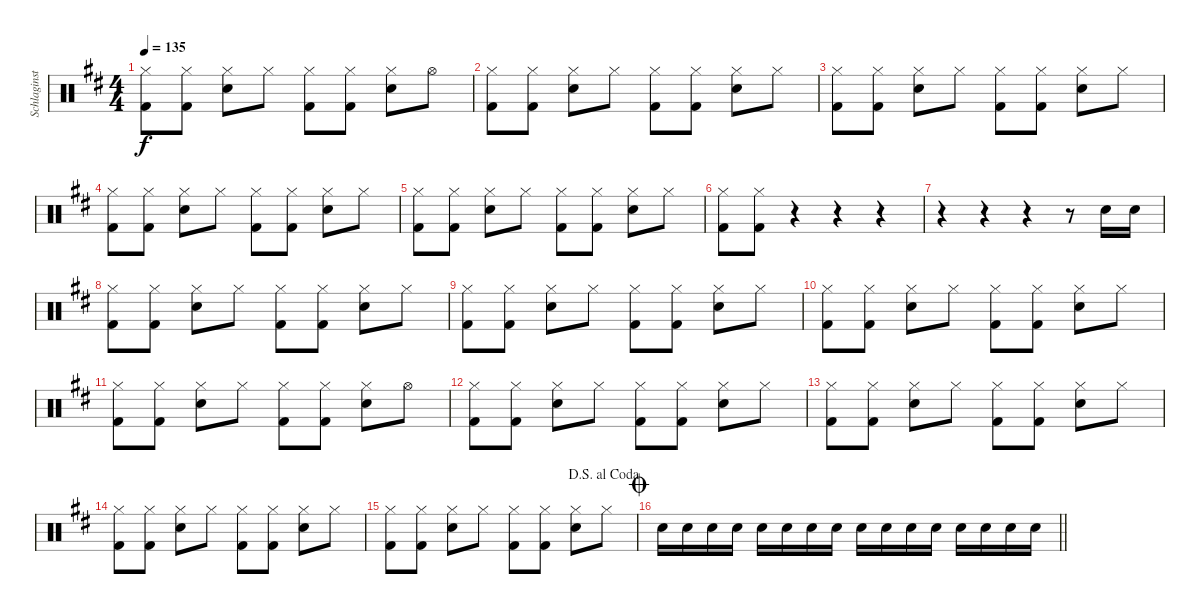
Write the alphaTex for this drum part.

\track ("Schlaginstrumente - Auswahl" "Schlaginst") {instrument percussion}
\staff {score}
\articulation defaults
\ts (4 4)
\tempo 135
\clef neutral
\ks d
("Hi-Hat (closed)" "Kick (hit) 2").8{dy f} ("Hi-Hat (closed)" "Kick (hit) 2").8 ("Hi-Hat (closed)" "Snare (hit) 2").8 "Hi-Hat (closed)".8 ("Hi-Hat (closed)" "Kick (hit) 2").8 ("Hi-Hat (closed)" "Kick (hit) 2").8 ("Hi-Hat (closed)" "Snare (hit) 2").8 "Hi-Hat (open)".8 |
("Hi-Hat (closed)" "Kick (hit) 2").8 ("Hi-Hat (closed)" "Kick (hit) 2").8 ("Hi-Hat (closed)" "Snare (hit) 2").8 "Hi-Hat (closed)".8 ("Hi-Hat (closed)" "Kick (hit) 2").8 ("Hi-Hat (closed)" "Kick (hit) 2").8 ("Hi-Hat (closed)" "Snare (hit) 2").8 "Hi-Hat (closed)".8 |
("Hi-Hat (closed)" "Kick (hit) 2").8 ("Hi-Hat (closed)" "Kick (hit) 2").8 ("Hi-Hat (closed)" "Snare (hit) 2").8 "Hi-Hat (closed)".8 ("Hi-Hat (closed)" "Kick (hit) 2").8 ("Hi-Hat (closed)" "Kick (hit) 2").8 ("Hi-Hat (closed)" "Snare (hit) 2").8 "Hi-Hat (closed)".8 |
("Hi-Hat (closed)" "Kick (hit) 2").8 ("Hi-Hat (closed)" "Kick (hit) 2").8 ("Hi-Hat (closed)" "Snare (hit) 2").8 "Hi-Hat (closed)".8 ("Hi-Hat (closed)" "Kick (hit) 2").8 ("Hi-Hat (closed)" "Kick (hit) 2").8 ("Hi-Hat (closed)" "Snare (hit) 2").8 "Hi-Hat (closed)".8 |
("Hi-Hat (closed)" "Kick (hit) 2").8 ("Hi-Hat (closed)" "Kick (hit) 2").8 ("Hi-Hat (closed)" "Snare (hit) 2").8 "Hi-Hat (closed)".8 ("Hi-Hat (closed)" "Kick (hit) 2").8 ("Hi-Hat (closed)" "Kick (hit) 2").8 ("Hi-Hat (closed)" "Snare (hit) 2").8 "Hi-Hat (closed)".8 |
("Hi-Hat (closed)" "Kick (hit) 2").8 ("Hi-Hat (closed)" "Kick (hit) 2").8 r.4 r.4 r.4 |
r.4 r.4 r.4 r.8 "Snare (hit) 2".16 "Snare (hit) 2".16 |
("Hi-Hat (closed)" "Kick (hit) 2").8 ("Hi-Hat (closed)" "Kick (hit) 2").8 ("Hi-Hat (closed)" "Snare (hit) 2").8 "Hi-Hat (closed)".8 ("Hi-Hat (closed)" "Kick (hit) 2").8 ("Hi-Hat (closed)" "Kick (hit) 2").8 ("Hi-Hat (closed)" "Snare (hit) 2").8 "Hi-Hat (closed)".8 |
("Hi-Hat (closed)" "Kick (hit) 2").8 ("Hi-Hat (closed)" "Kick (hit) 2").8 ("Hi-Hat (closed)" "Snare (hit) 2").8 "Hi-Hat (closed)".8 ("Hi-Hat (closed)" "Kick (hit) 2").8 ("Hi-Hat (closed)" "Kick (hit) 2").8 ("Hi-Hat (closed)" "Snare (hit) 2").8 "Hi-Hat (closed)".8 |
("Hi-Hat (closed)" "Kick (hit) 2").8 ("Hi-Hat (closed)" "Kick (hit) 2").8 ("Hi-Hat (closed)" "Snare (hit) 2").8 "Hi-Hat (closed)".8 ("Hi-Hat (closed)" "Kick (hit) 2").8 ("Hi-Hat (closed)" "Kick (hit) 2").8 ("Hi-Hat (closed)" "Snare (hit) 2").8 "Hi-Hat (closed)".8 |
("Hi-Hat (closed)" "Kick (hit) 2").8 ("Hi-Hat (closed)" "Kick (hit) 2").8 ("Hi-Hat (closed)" "Snare (hit) 2").8 "Hi-Hat (closed)".8 ("Hi-Hat (closed)" "Kick (hit) 2").8 ("Hi-Hat (closed)" "Kick (hit) 2").8 ("Hi-Hat (closed)" "Snare (hit) 2").8 "Hi-Hat (open)".8 |
("Hi-Hat (closed)" "Kick (hit) 2").8 ("Hi-Hat (closed)" "Kick (hit) 2").8 ("Hi-Hat (closed)" "Snare (hit) 2").8 "Hi-Hat (closed)".8 ("Hi-Hat (closed)" "Kick (hit) 2").8 ("Hi-Hat (closed)" "Kick (hit) 2").8 ("Hi-Hat (closed)" "Snare (hit) 2").8 "Hi-Hat (closed)".8 |
("Hi-Hat (closed)" "Kick (hit) 2").8 ("Hi-Hat (closed)" "Kick (hit) 2").8 ("Hi-Hat (closed)" "Snare (hit) 2").8 "Hi-Hat (closed)".8 ("Hi-Hat (closed)" "Kick (hit) 2").8 ("Hi-Hat (closed)" "Kick (hit) 2").8 ("Hi-Hat (closed)" "Snare (hit) 2").8 "Hi-Hat (closed)".8 |
("Hi-Hat (closed)" "Kick (hit) 2").8 ("Hi-Hat (closed)" "Kick (hit) 2").8 ("Hi-Hat (closed)" "Snare (hit) 2").8 "Hi-Hat (closed)".8 ("Hi-Hat (closed)" "Kick (hit) 2").8 ("Hi-Hat (closed)" "Kick (hit) 2").8 ("Hi-Hat (closed)" "Snare (hit) 2").8 "Hi-Hat (closed)".8 |
\jump dalsegnoalcoda
("Hi-Hat (closed)" "Kick (hit) 2").8 ("Hi-Hat (closed)" "Kick (hit) 2").8 ("Hi-Hat (closed)" "Snare (hit) 2").8 "Hi-Hat (closed)".8 ("Hi-Hat (closed)" "Kick (hit) 2").8 ("Hi-Hat (closed)" "Kick (hit) 2").8 ("Hi-Hat (closed)" "Snare (hit) 2").8 "Hi-Hat (closed)".8 |
\jump coda
\barLineRight lightlight "Snare (hit) 2".16 "Snare (hit) 2".16 "Snare (hit) 2".16 "Snare (hit) 2".16 "Snare (hit) 2".16 "Snare (hit) 2".16 "Snare (hit) 2".16 "Snare (hit) 2".16 "Snare (hit) 2".16 "Snare (hit) 2".16 "Snare (hit) 2".16 "Snare (hit) 2".16 "Snare (hit) 2".16 "Snare (hit) 2".16 "Snare (hit) 2".16 "Snare (hit) 2".16
